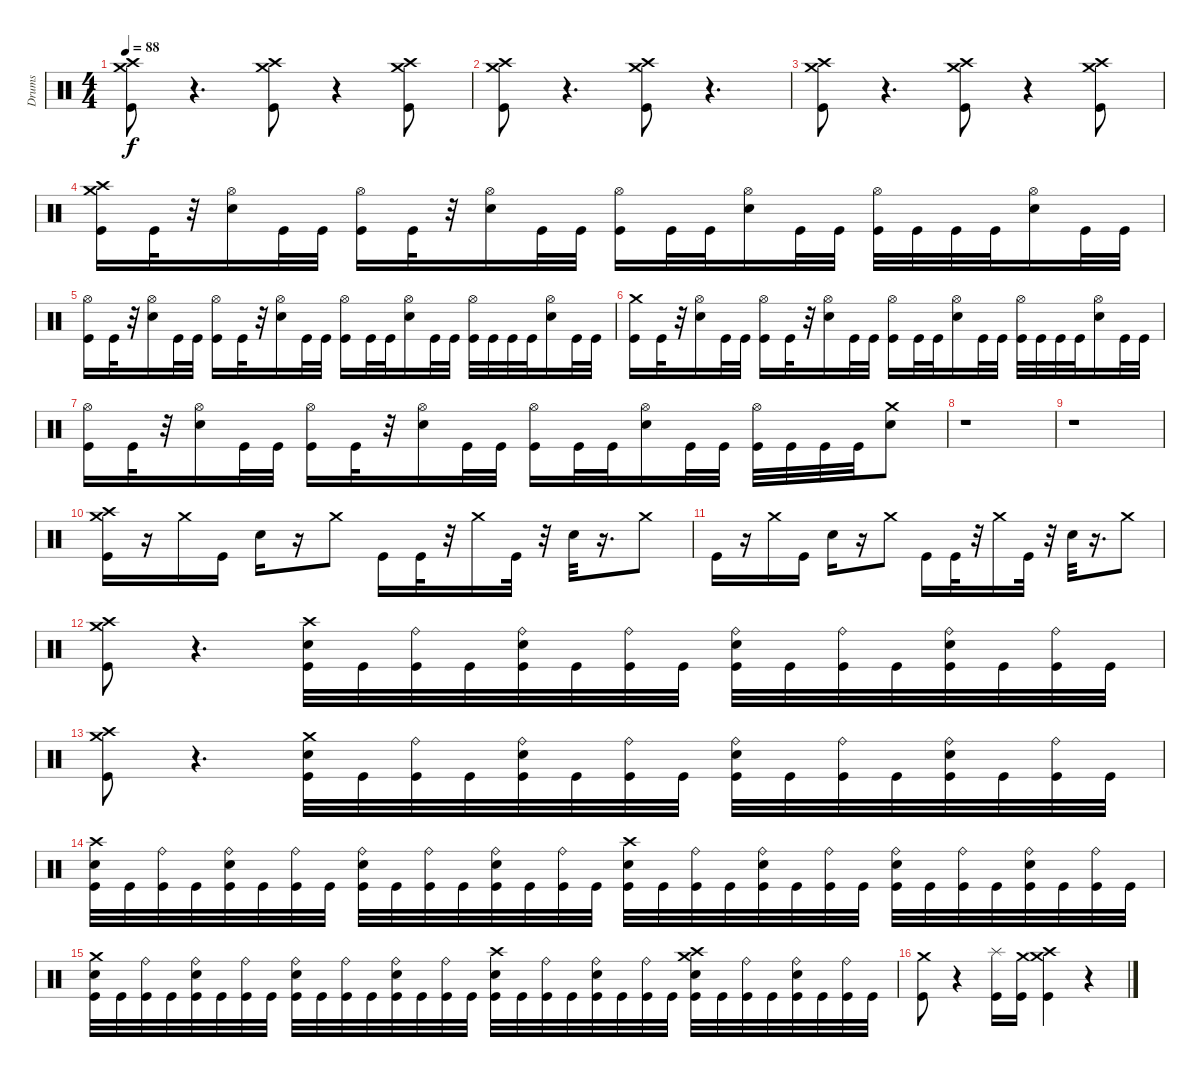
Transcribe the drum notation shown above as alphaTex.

\track ("Drums" "Drums") {instrument percussion}
\staff {score}
\articulation defaults
\ts (4 4)
\tempo 88
\clef neutral
\ks c
("Crash medium (hit)" "Crash high (hit)" "Kick (hit)").8{dy f} r.4{d} ("Crash medium (hit)" "Crash high (hit)" "Kick (hit)").8 r.4 ("Crash medium (hit)" "Crash high (hit)" "Kick (hit)").8 |
("Crash medium (hit)" "Crash high (hit)" "Kick (hit)").8 r.4{d} ("Crash medium (hit)" "Crash high (hit)" "Kick (hit)").8 r.4{d} |
("Crash medium (hit)" "Crash high (hit)" "Kick (hit)").8 r.4{d} ("Crash medium (hit)" "Crash high (hit)" "Kick (hit)").8 r.4 ("Crash medium (hit)" "Crash high (hit)" "Kick (hit)").8 |
("Crash medium (hit)" "Crash high (hit)" "Kick (hit)").16 "Kick (hit)".32 r.32 ("Hi-Hat (open)" "Snare (hit) 2").16 "Kick (hit)".32 "Kick (hit)".32 ("Hi-Hat (open)" "Kick (hit)").16 "Kick (hit)".32 r.32 ("Hi-Hat (open)" "Snare (hit) 2").16 "Kick (hit)".32 "Kick (hit)".32 ("Kick (hit)" "Hi-Hat (open)").16 "Kick (hit)".32 "Kick (hit)".32 ("Snare (hit) 2" "Hi-Hat (open)").16 "Kick (hit)".32 "Kick (hit)".32 ("Kick (hit)" "Hi-Hat (open)").32 "Kick (hit)".32 "Kick (hit)".32 "Kick (hit)".32 ("Snare (hit) 2" "Hi-Hat (open)").16 "Kick (hit)".32 "Kick (hit)".32 |
("Hi-Hat (open)" "Kick (hit)").16 "Kick (hit)".32 r.32 ("Hi-Hat (open)" "Snare (hit) 2").16 "Kick (hit)".32 "Kick (hit)".32 ("Hi-Hat (open)" "Kick (hit)").16 "Kick (hit)".32 r.32 ("Hi-Hat (open)" "Snare (hit) 2").16 "Kick (hit)".32 "Kick (hit)".32 ("Kick (hit)" "Hi-Hat (open)").16 "Kick (hit)".32 "Kick (hit)".32 ("Snare (hit) 2" "Hi-Hat (open)").16 "Kick (hit)".32 "Kick (hit)".32 ("Kick (hit)" "Hi-Hat (open)").32 "Kick (hit)".32 "Kick (hit)".32 "Kick (hit)".32 ("Snare (hit) 2" "Hi-Hat (open)").16 "Kick (hit)".32 "Kick (hit)".32 |
("Crash medium (hit)" "Kick (hit)").16 "Kick (hit)".32 r.32 ("Hi-Hat (open)" "Snare (hit) 2").16 "Kick (hit)".32 "Kick (hit)".32 ("Hi-Hat (open)" "Kick (hit)").16 "Kick (hit)".32 r.32 ("Hi-Hat (open)" "Snare (hit) 2").16 "Kick (hit)".32 "Kick (hit)".32 ("Kick (hit)" "Hi-Hat (open)").16 "Kick (hit)".32 "Kick (hit)".32 ("Snare (hit) 2" "Hi-Hat (open)").16 "Kick (hit)".32 "Kick (hit)".32 ("Kick (hit)" "Hi-Hat (open)").32 "Kick (hit)".32 "Kick (hit)".32 "Kick (hit)".32 ("Snare (hit) 2" "Hi-Hat (open)").16 "Kick (hit)".32 "Kick (hit)".32 |
("Hi-Hat (open)" "Kick (hit)").16 "Kick (hit)".32 r.32 ("Hi-Hat (open)" "Snare (hit) 2").16 "Kick (hit)".32 "Kick (hit)".32 ("Hi-Hat (open)" "Kick (hit)").16 "Kick (hit)".32 r.32 ("Hi-Hat (open)" "Snare (hit) 2").16 "Kick (hit)".32 "Kick (hit)".32 ("Kick (hit)" "Hi-Hat (open)").16 "Kick (hit)".32 "Kick (hit)".32 ("Snare (hit) 2" "Hi-Hat (open)").16 "Kick (hit)".32 "Kick (hit)".32 ("Kick (hit)" "Hi-Hat (open)").32 "Kick (hit)".32 "Kick (hit)".32 "Kick (hit)".32 ("Snare (hit) 2" "Crash medium (hit)").8 |
r.1 |
r.1 |
("Crash medium (hit)" "Crash high (hit)" "Kick (hit)").16 r.16 "Crash medium (hit)".16 "Kick (hit)".16 "Snare (hit) 2".16 r.16 "Crash medium (hit)".8 "Kick (hit)".16 "Kick (hit)".32 r.32 "Crash medium (hit)".16 "Kick (hit)".32 r.32 "Snare (hit) 2".32 r.16{d} "Crash medium (hit)".8 |
"Kick (hit)".16 r.16 "Crash medium (hit)".16 "Kick (hit)".16 "Snare (hit) 2".16 r.16 "Crash medium (hit)".8 "Kick (hit)".16 "Kick (hit)".32 r.32 "Crash medium (hit)".16 "Kick (hit)".32 r.32 "Snare (hit) 2".32 r.16{d} "Crash medium (hit)".8 |
("Crash high (hit)" "Kick (hit)" "Crash medium (hit)").8 r.4{d} ("Crash high (hit)" "Kick (hit)" "Snare (hit) 2").32 "Kick (hit)".32 ("Ride (bell)" "Kick (hit)").32 "Kick (hit)".32 ("Ride (bell)" "Snare (hit) 2" "Kick (hit)").32 "Kick (hit)".32 ("Ride (bell)" "Kick (hit)").32 "Kick (hit)".32 ("Ride (bell)" "Snare (hit) 2" "Kick (hit)").32 "Kick (hit)".32 ("Ride (bell)" "Kick (hit)").32 "Kick (hit)".32 ("Ride (bell)" "Snare (hit) 2" "Kick (hit)").32 "Kick (hit)".32 ("Ride (bell)" "Kick (hit)").32 "Kick (hit)".32 |
("Crash high (hit)" "Kick (hit)" "Crash medium (hit)").8 r.4{d} ("Crash medium (hit)" "Kick (hit)" "Snare (hit) 2").32 "Kick (hit)".32 ("Ride (bell)" "Kick (hit)").32 "Kick (hit)".32 ("Ride (bell)" "Snare (hit) 2" "Kick (hit)").32 "Kick (hit)".32 ("Ride (bell)" "Kick (hit)").32 "Kick (hit)".32 ("Ride (bell)" "Snare (hit) 2" "Kick (hit)").32 "Kick (hit)".32 ("Ride (bell)" "Kick (hit)").32 "Kick (hit)".32 ("Ride (bell)" "Snare (hit) 2" "Kick (hit)").32 "Kick (hit)".32 ("Ride (bell)" "Kick (hit)").32 "Kick (hit)".32 |
("Crash high (hit)" "Kick (hit)" "Snare (hit) 2").32 "Kick (hit)".32 ("Ride (bell)" "Kick (hit)").32 "Kick (hit)".32 ("Ride (bell)" "Snare (hit) 2" "Kick (hit)").32 "Kick (hit)".32 ("Ride (bell)" "Kick (hit)").32 "Kick (hit)".32 ("Ride (bell)" "Snare (hit) 2" "Kick (hit)").32 "Kick (hit)".32 ("Ride (bell)" "Kick (hit)").32 "Kick (hit)".32 ("Ride (bell)" "Snare (hit) 2" "Kick (hit)").32 "Kick (hit)".32 ("Ride (bell)" "Kick (hit)").32 "Kick (hit)".32 ("Crash high (hit)" "Kick (hit)" "Snare (hit) 2").32 "Kick (hit)".32 ("Ride (bell)" "Kick (hit)").32 "Kick (hit)".32 ("Ride (bell)" "Snare (hit) 2" "Kick (hit)").32 "Kick (hit)".32 ("Ride (bell)" "Kick (hit)").32 "Kick (hit)".32 ("Ride (bell)" "Snare (hit) 2" "Kick (hit)").32 "Kick (hit)".32 ("Ride (bell)" "Kick (hit)").32 "Kick (hit)".32 ("Ride (bell)" "Snare (hit) 2" "Kick (hit)").32 "Kick (hit)".32 ("Ride (bell)" "Kick (hit)").32 "Kick (hit)".32 |
("Crash medium (hit)" "Kick (hit)" "Snare (hit) 2").32 "Kick (hit)".32 ("Ride (bell)" "Kick (hit)").32 "Kick (hit)".32 ("Ride (bell)" "Snare (hit) 2" "Kick (hit)").32 "Kick (hit)".32 ("Ride (bell)" "Kick (hit)").32 "Kick (hit)".32 ("Ride (bell)" "Snare (hit) 2" "Kick (hit)").32 "Kick (hit)".32 ("Ride (bell)" "Kick (hit)").32 "Kick (hit)".32 ("Ride (bell)" "Snare (hit) 2" "Kick (hit)").32 "Kick (hit)".32 ("Ride (bell)" "Kick (hit)").32 "Kick (hit)".32 ("Crash high (hit)" "Kick (hit)" "Snare (hit) 2").32 "Kick (hit)".32 ("Ride (bell)" "Kick (hit)").32 "Kick (hit)".32 ("Ride (bell)" "Snare (hit) 2" "Kick (hit)").32 "Kick (hit)".32 ("Ride (bell)" "Kick (hit)").32 "Kick (hit)".32 ("Crash medium (hit)" "Crash high (hit)" "Snare (hit) 2" "Kick (hit)").32 "Kick (hit)".32 ("Ride (bell)" "Kick (hit)").32 "Kick (hit)".32 ("Ride (bell)" "Snare (hit) 2" "Kick (hit)").32 "Kick (hit)".32 ("Ride (bell)" "Kick (hit)").32 "Kick (hit)".32 |
("Kick (hit)" "Crash medium (hit)").8 r.4 ("Splash (hit)" "Kick (hit)").16 ("Crash medium (hit)" "Kick (hit)").16 ("Crash medium (hit)" "Crash high (hit)" "Kick (hit)").4 r.4
